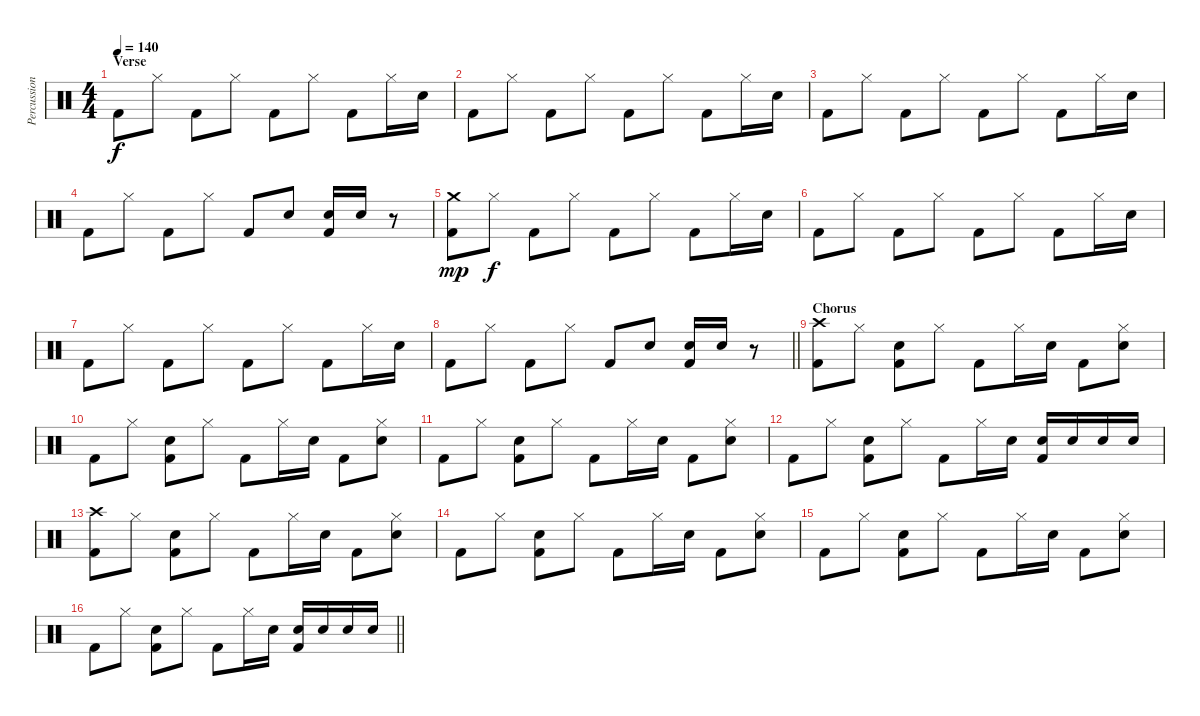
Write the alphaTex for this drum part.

\track ("Percussion" "Percussion") {instrument percussion}
\staff {score}
\articulation defaults
\ts (4 4)
\section ("" "Verse")
\tempo 140
\clef neutral
\ks c "Kick (hit) 2".8{dy f} "Hi-Hat (closed)".8 "Kick (hit) 2".8 "Hi-Hat (closed)".8 "Kick (hit) 2".8 "Hi-Hat (closed)".8 "Kick (hit) 2".8 "Hi-Hat (closed)".16 "Electric Snare (hit)".16
|
"Kick (hit) 2".8 "Hi-Hat (closed)".8 "Kick (hit) 2".8 "Hi-Hat (closed)".8 "Kick (hit) 2".8 "Hi-Hat (closed)".8 "Kick (hit) 2".8 "Hi-Hat (closed)".16 "Electric Snare (hit)".16 |
"Kick (hit) 2".8 "Hi-Hat (closed)".8 "Kick (hit) 2".8 "Hi-Hat (closed)".8 "Kick (hit) 2".8 "Hi-Hat (closed)".8 "Kick (hit) 2".8 "Hi-Hat (closed)".16 "Electric Snare (hit)".16 |
"Kick (hit) 2".8 "Hi-Hat (closed)".8 "Kick (hit) 2".8 "Hi-Hat (closed)".8 "Kick (hit) 2".8 "Electric Snare (hit)".8 ("Electric Snare (hit)" "Kick (hit) 2").16 "Electric Snare (hit)".16 r.8 |
("Crash medium (hit)" "Kick (hit) 2").8{dy mp} "Hi-Hat (closed)".8{dy f} "Kick (hit) 2".8 "Hi-Hat (closed)".8 "Kick (hit) 2".8 "Hi-Hat (closed)".8 "Kick (hit) 2".8 "Hi-Hat (closed)".16 "Electric Snare (hit)".16 |
"Kick (hit) 2".8 "Hi-Hat (closed)".8 "Kick (hit) 2".8 "Hi-Hat (closed)".8 "Kick (hit) 2".8 "Hi-Hat (closed)".8 "Kick (hit) 2".8 "Hi-Hat (closed)".16 "Electric Snare (hit)".16 |
"Kick (hit) 2".8 "Hi-Hat (closed)".8 "Kick (hit) 2".8 "Hi-Hat (closed)".8 "Kick (hit) 2".8 "Hi-Hat (closed)".8 "Kick (hit) 2".8 "Hi-Hat (closed)".16 "Electric Snare (hit)".16 |
\barLineRight lightlight "Kick (hit) 2".8 "Hi-Hat (closed)".8 "Kick (hit) 2".8 "Hi-Hat (closed)".8 "Kick (hit) 2".8 "Electric Snare (hit)".8
("Electric Snare (hit)" "Kick (hit) 2").16 "Electric Snare (hit)".16 r.8 |
\section ("" "Chorus")
("Crash high (hit)" "Kick (hit) 2").8 "Hi-Hat (closed)".8 ("Electric Snare (hit)" "Kick (hit) 2").8 "Hi-Hat (closed)".8 "Kick (hit) 2".8 "Hi-Hat (closed)".16 "Electric Snare (hit)".16 "Kick (hit) 2".8 ("Hi-Hat (closed)" "Electric Snare (hit)").8 |
"Kick (hit) 2".8 "Hi-Hat (closed)".8 ("Electric Snare (hit)" "Kick (hit) 2").8 "Hi-Hat (closed)".8 "Kick (hit) 2".8 "Hi-Hat (closed)".16 "Electric Snare (hit)".16 "Kick (hit) 2".8 ("Hi-Hat (closed)" "Electric Snare (hit)").8 |
"Kick (hit) 2".8 "Hi-Hat (closed)".8 ("Electric Snare (hit)" "Kick (hit) 2").8 "Hi-Hat (closed)".8 "Kick (hit) 2".8 "Hi-Hat (closed)".16 "Electric Snare (hit)".16 "Kick (hit) 2".8 ("Hi-Hat (closed)" "Electric Snare (hit)").8 |
"Kick (hit) 2".8 "Hi-Hat (closed)".8 ("Electric Snare (hit)" "Kick (hit) 2").8 "Hi-Hat (closed)".8 "Kick (hit) 2".8 "Hi-Hat (closed)".16 "Electric Snare (hit)".16 ("Electric Snare (hit)" "Kick (hit) 2").16 "Electric Snare (hit)".16 "Electric Snare (hit)".16 "Electric Snare (hit)".16 |
("Crash high (hit)" "Kick (hit) 2").8 "Hi-Hat (closed)".8 ("Electric Snare (hit)" "Kick (hit) 2").8 "Hi-Hat (closed)".8 "Kick (hit) 2".8 "Hi-Hat (closed)".16 "Electric Snare (hit)".16 "Kick (hit) 2".8 ("Hi-Hat (closed)" "Electric Snare (hit)").8 |
"Kick (hit) 2".8 "Hi-Hat (closed)".8 ("Electric Snare (hit)" "Kick (hit) 2").8 "Hi-Hat (closed)".8 "Kick (hit) 2".8 "Hi-Hat (closed)".16 "Electric Snare (hit)".16 "Kick (hit) 2".8 ("Hi-Hat (closed)" "Electric Snare (hit)").8 |
"Kick (hit) 2".8 "Hi-Hat (closed)".8 ("Electric Snare (hit)" "Kick (hit) 2").8 "Hi-Hat (closed)".8 "Kick (hit) 2".8 "Hi-Hat (closed)".16 "Electric Snare (hit)".16 "Kick (hit) 2".8 ("Hi-Hat (closed)" "Electric Snare (hit)").8 |
\barLineRight lightlight "Kick (hit) 2".8 "Hi-Hat (closed)".8
("Electric Snare (hit)" "Kick (hit) 2").8 "Hi-Hat (closed)".8 "Kick (hit) 2".8 "Hi-Hat (closed)".16 "Electric Snare (hit)".16 ("Electric Snare (hit)" "Kick (hit) 2").16 "Electric Snare (hit)".16 "Electric Snare (hit)".16 "Electric Snare (hit)".16
